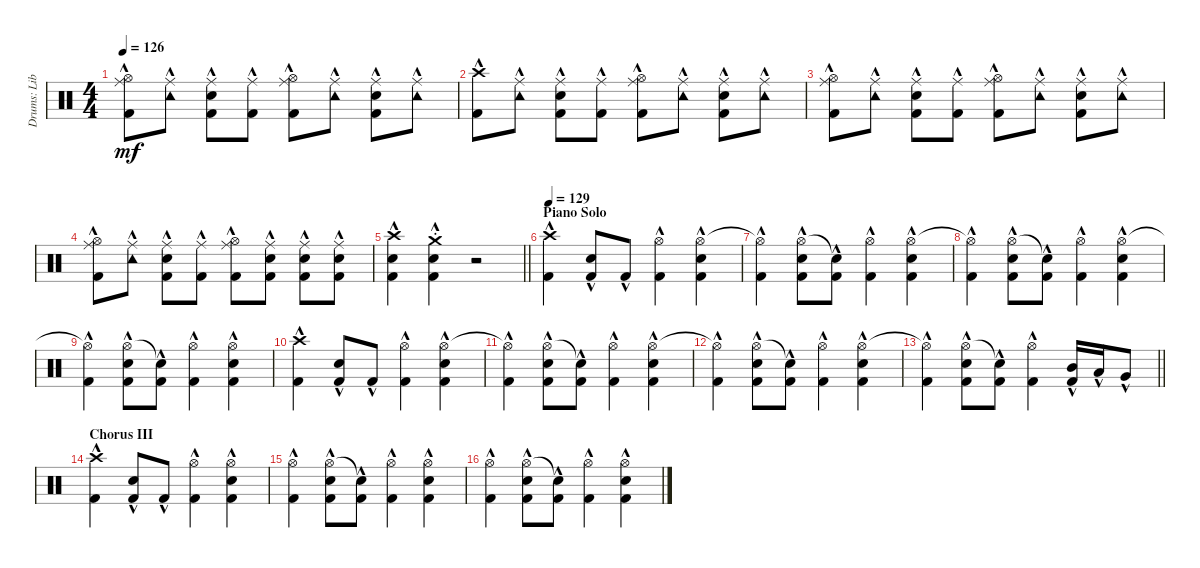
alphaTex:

\track ("Drums: Liberty" "Drums: Lib") {instrument percussion}
\staff {score}
\articulation defaults
\ts (4 4)
\tempo 126
\clef neutral
\ks c
("Ride (middle)"{hac} "Hi-Hat (open)" "Kick (hit) 2"{hac}).8{dy mf} ("Ride (middle)"{hac} "Tambourine (hit)").8 ("Ride (middle)"{hac} "Snare (hit) 2"{hac} "Kick (hit) 2"{hac}).8 ("Ride (middle)"{hac} "Kick (hit) 2"{hac}).8 ("Ride (middle)"{hac} "Hi-Hat (open)"{hac} "Kick (hit) 2"{hac}).8 ("Ride (middle)"{hac} "Tambourine (hit)").8 ("Ride (middle)"{hac} "Snare (hit) 2"{hac} "Kick (hit) 2"{hac}).8 ("Ride (middle)"{hac} "Tambourine (hit)").8 |
("Crash high (hit)" "Kick (hit) 2"{hac}).8 ("Ride (middle)"{hac} "Tambourine (hit)").8 ("Ride (middle)"{hac} "Snare (hit) 2"{hac} "Kick (hit) 2"{hac}).8 ("Ride (middle)"{hac} "Kick (hit) 2"{hac}).8 ("Ride (middle)"{hac} "Hi-Hat (open)"{hac} "Kick (hit) 2"{hac}).8 ("Ride (middle)"{hac} "Tambourine (hit)").8 ("Ride (middle)"{hac} "Snare (hit) 2"{hac} "Kick (hit) 2"{hac}).8 ("Ride (middle)"{hac} "Tambourine (hit)").8 |
("Ride (middle)"{hac} "Hi-Hat (open)" "Kick (hit) 2"{hac}).8 ("Ride (middle)"{hac} "Tambourine (hit)").8 ("Ride (middle)"{hac} "Snare (hit) 2"{hac} "Kick (hit) 2"{hac}).8 ("Ride (middle)"{hac} "Kick (hit) 2"{hac}).8 ("Ride (middle)"{hac} "Hi-Hat (open)"{hac} "Kick (hit) 2"{hac}).8 ("Ride (middle)"{hac} "Tambourine (hit)").8 ("Ride (middle)"{hac} "Snare (hit) 2"{hac} "Kick (hit) 2"{hac}).8 ("Ride (middle)"{hac} "Tambourine (hit)").8 |
("Ride (middle)"{hac} "Hi-Hat (open)" "Kick (hit) 2"{hac}).8 ("Ride (middle)"{hac} "Tambourine (hit)").8 ("Ride (middle)"{hac} "Snare (hit) 2"{hac} "Kick (hit) 2"{hac}).8 ("Ride (middle)"{hac} "Kick (hit) 2"{hac}).8 ("Ride (middle)"{hac} "Hi-Hat (open)"{hac} "Kick (hit) 2"{hac}).8 ("Ride (middle)"{hac} "Snare (hit) 2"{hac} "Kick (hit) 2"{hac}).8 ("Ride (middle)"{hac} "Snare (hit) 2"{hac} "Kick (hit) 2"{hac}).8 ("Ride (middle)"{hac} "Snare (hit) 2"{hac} "Kick (hit) 2"{hac}).8 |
\barLineRight lightlight
("Crash high (hit)" "Snare (hit) 2"{hac} "Kick (hit) 2"{hac}).4 ("Crash medium (hit)"{st} "Snare (hit) 2"{hac st} "Kick (hit) 2"{hac st}).4 r.2 |
\section ("" "Piano Solo")
\tempo 129
("Crash high (hit)"{hac} "Kick (hit) 2"{hac}).4 ("Snare (hit) 2"{hac} "Kick (hit) 2"{hac}).8 "Kick (hit) 2"{hac}.8 ("Hi-Hat (open)"{hac} "Kick (hit) 2"{hac}).4 ("Hi-Hat (open)"{hac} "Snare (hit) 2"{hac} "Kick (hit) 2"{hac}).4 |
("Hi-Hat (open)"{t} "Kick (hit) 2"{hac}).4 ("Hi-Hat (open)" "Snare (hit) 2"{hac} "Kick (hit) 2"{hac}).8 ("Snare (hit)"{t} "Kick (hit) 2"{hac}).8 ("Hi-Hat (open)"{hac} "Kick (hit) 2"{hac}).4 ("Hi-Hat (open)"{hac} "Snare (hit) 2"{hac} "Kick (hit) 2"{hac}).4 |
("Hi-Hat (open)"{t} "Kick (hit) 2"{hac}).4 ("Hi-Hat (open)" "Snare (hit) 2"{hac} "Kick (hit) 2"{hac}).8 ("Snare (hit)"{t} "Kick (hit) 2"{hac}).8 ("Hi-Hat (open)"{hac} "Kick (hit) 2"{hac}).4 ("Hi-Hat (open)"{hac} "Snare (hit) 2"{hac} "Kick (hit) 2"{hac}).4 |
("Hi-Hat (open)"{t} "Kick (hit) 2"{hac}).4 ("Hi-Hat (open)" "Snare (hit) 2"{hac} "Kick (hit) 2"{hac}).8 ("Snare (hit)"{t} "Kick (hit) 2"{hac}).8 ("Hi-Hat (open)"{hac} "Kick (hit) 2"{hac}).4 ("Hi-Hat (open)"{hac} "Snare (hit) 2"{hac} "Kick (hit) 2"{hac}).4 |
("Crash high (hit)"{hac} "Kick (hit) 2"{hac}).4 ("Snare (hit) 2"{hac} "Kick (hit) 2"{hac}).8 "Kick (hit) 2"{hac}.8 ("Hi-Hat (open)"{hac} "Kick (hit) 2"{hac}).4 ("Hi-Hat (open)"{hac} "Snare (hit) 2"{hac} "Kick (hit) 2"{hac}).4 |
("Hi-Hat (open)"{t} "Kick (hit) 2"{hac}).4 ("Hi-Hat (open)" "Snare (hit) 2"{hac} "Kick (hit) 2"{hac}).8 ("Snare (hit)"{t} "Kick (hit) 2"{hac}).8 ("Hi-Hat (open)"{hac} "Kick (hit) 2"{hac}).4 ("Hi-Hat (open)"{hac} "Snare (hit) 2"{hac} "Kick (hit) 2"{hac}).4 |
("Hi-Hat (open)"{t} "Kick (hit) 2"{hac}).4 ("Hi-Hat (open)" "Snare (hit) 2"{hac} "Kick (hit) 2"{hac}).8 ("Snare (hit)"{t} "Kick (hit) 2"{hac}).8 ("Hi-Hat (open)"{hac} "Kick (hit) 2"{hac}).4 ("Hi-Hat (open)"{hac} "Snare (hit) 2"{hac} "Kick (hit) 2"{hac}).4 |
\barLineRight lightlight
("Hi-Hat (open)"{t} "Kick (hit) 2"{hac}).4 ("Hi-Hat (open)" "Snare (hit) 2"{hac} "Kick (hit) 2"{hac}).8 ("Snare (hit)"{t} "Kick (hit) 2"{hac}).8 ("Hi-Hat (open)"{hac} "Kick (hit) 2"{hac}).4 ("Mid Tom (hit)"{hac} "Kick (hit) 2"{hac}).16 "Low Tom (hit)"{hac}.16 "Very Low Tom (hit)"{hac}.8 |
\section ("" "Chorus III")
("Crash high (hit)"{hac} "Kick (hit) 2"{hac}).4 ("Snare (hit) 2"{hac} "Kick (hit) 2"{hac}).8 "Kick (hit) 2"{hac}.8 ("Hi-Hat (open)"{hac} "Kick (hit) 2"{hac}).4 ("Hi-Hat (open)"{hac} "Snare (hit) 2"{hac} "Kick (hit) 2"{hac}).4 |
("Hi-Hat (open)" "Kick (hit) 2"{hac}).4 ("Hi-Hat (open)" "Snare (hit) 2"{hac} "Kick (hit) 2"{hac}).8 ("Snare (hit)"{t} "Kick (hit) 2"{hac}).8 ("Hi-Hat (open)"{hac} "Kick (hit) 2"{hac}).4 ("Hi-Hat (open)"{hac} "Snare (hit) 2"{hac} "Kick (hit) 2"{hac}).4 |
("Hi-Hat (open)" "Kick (hit) 2"{hac}).4 ("Hi-Hat (open)" "Snare (hit) 2"{hac} "Kick (hit) 2"{hac}).8 ("Snare (hit)"{t} "Kick (hit) 2"{hac}).8 ("Hi-Hat (open)"{hac} "Kick (hit) 2"{hac}).4 ("Hi-Hat (open)"{hac} "Snare (hit) 2"{hac} "Kick (hit) 2"{hac}).4
